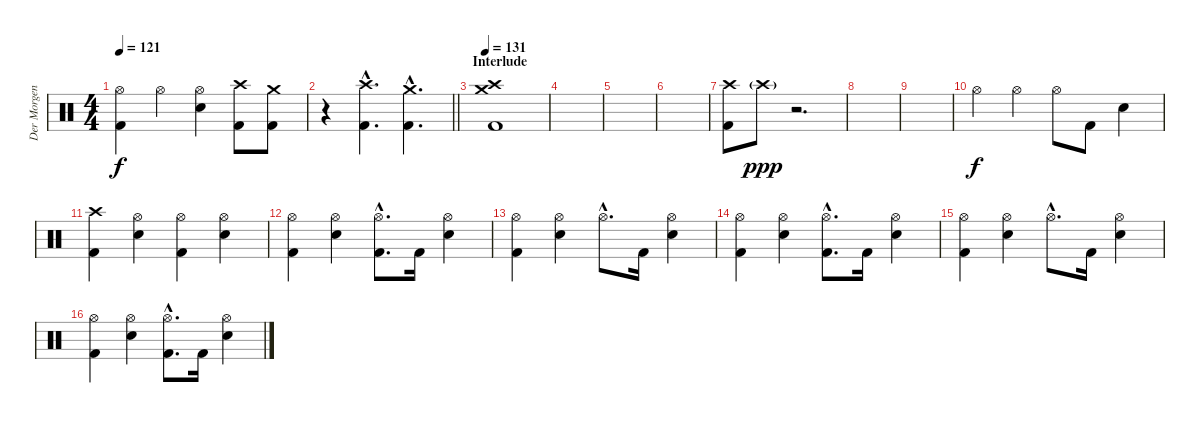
\track ("Der Morgenstern" "Der Morgen") {instrument percussion}
\staff {score}
\articulation defaults
\ts (4 4)
\tempo 121
\clef neutral
\ks c
("Hi-Hat (open)" "Kick (hit) 2").4{dy f} "Hi-Hat (open)".4 ("Hi-Hat (open)" "Electric Snare (hit)").4 ("Crash high (hit)" "Kick (hit) 2").8 ("Crash medium (hit)" "Kick (hit) 2").8 |
\barLineRight lightlight
r.4 ("Crash high (hit)"{hac} "Kick (hit) 2"{hac}).4{d} ("Crash medium (hit)"{hac} "Kick (hit) 2"{hac}).4{d} |
\section ("" "Interlude")
\tempo 131
("Crash high (hit)" "Crash medium (hit)" "Kick (hit) 2").1 |
|
|
|
("Crash high (hit)" "Kick (hit) 2").8 "Crash high (hit)"{g}.8{dy ppp} r.2{d} |
|
|
"Hi-Hat (open)".4{dy f} "Hi-Hat (open)".4 "Hi-Hat (open)".8 "Kick (hit) 2".8 "Electric Snare (hit)".4 |
("Crash high (hit)" "Kick (hit) 2").4 ("Hi-Hat (open)" "Electric Snare (hit)").4 ("Hi-Hat (open)" "Kick (hit) 2").4 ("Hi-Hat (open)" "Electric Snare (hit)").4 |
("Hi-Hat (open)" "Kick (hit) 2").4 ("Hi-Hat (open)" "Electric Snare (hit)").4 ("Hi-Hat (open)"{hac} "Kick (hit) 2"{hac}).8{d} "Kick (hit) 2".16 ("Hi-Hat (open)" "Electric Snare (hit)").4 |
("Hi-Hat (open)" "Kick (hit) 2").4 ("Hi-Hat (open)" "Electric Snare (hit)").4 "Hi-Hat (open)"{hac}.8{d} "Kick (hit) 2".16 ("Hi-Hat (open)" "Electric Snare (hit)").4 |
("Hi-Hat (open)" "Kick (hit) 2").4 ("Hi-Hat (open)" "Electric Snare (hit)").4 ("Hi-Hat (open)"{hac} "Kick (hit) 2"{hac}).8{d} "Kick (hit) 2".16 ("Hi-Hat (open)" "Electric Snare (hit)").4 |
("Hi-Hat (open)" "Kick (hit) 2").4 ("Hi-Hat (open)" "Electric Snare (hit)").4 "Hi-Hat (open)"{hac}.8{d} "Kick (hit) 2".16 ("Hi-Hat (open)" "Electric Snare (hit)").4 |
("Hi-Hat (open)" "Kick (hit) 2").4 ("Hi-Hat (open)" "Electric Snare (hit)").4 ("Hi-Hat (open)"{hac} "Kick (hit) 2"{hac}).8{d} "Kick (hit) 2".16 ("Hi-Hat (open)" "Electric Snare (hit)").4
